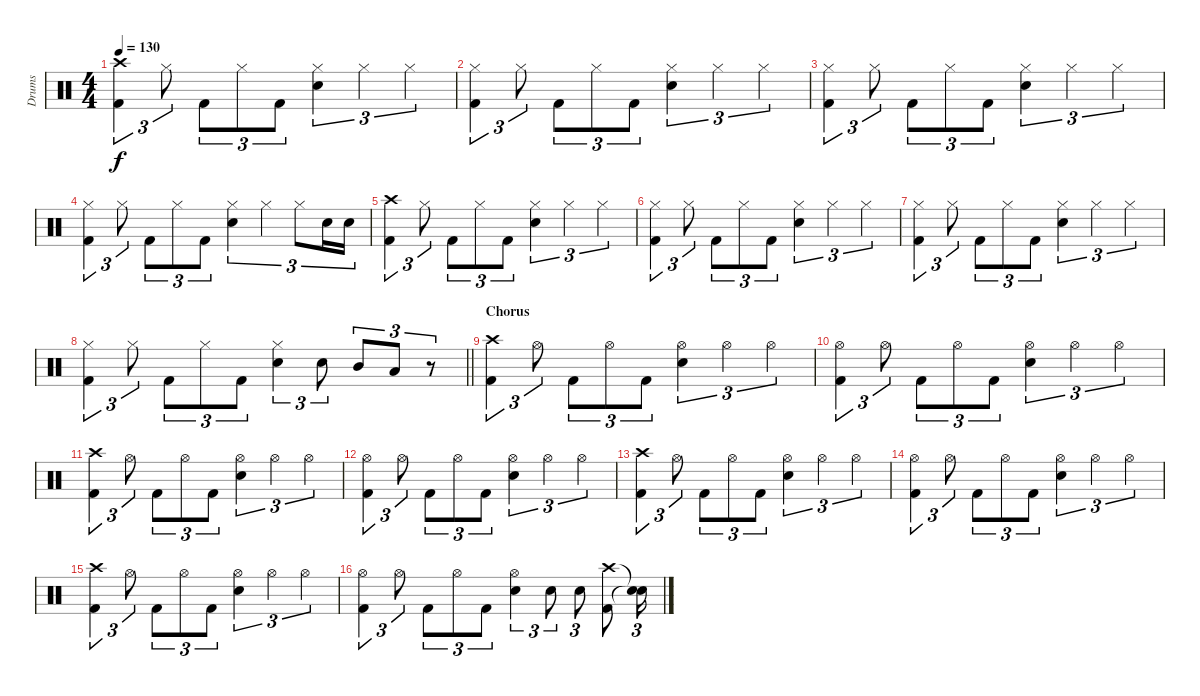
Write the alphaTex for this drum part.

\track ("Drums" "Drums") {instrument percussion}
\staff {score}
\articulation defaults
\ts (4 4)
\tempo 130
\clef neutral
\ks c
("Crash high (hit)" "Kick (hit) 2").4{tu (3 2) dy f} "Hi-Hat (closed)".8{tu (3 2)} "Kick (hit) 2".8{tu (3 2)} "Hi-Hat (closed)".8{tu (3 2)} "Kick (hit) 2".8{tu (3 2)} ("Hi-Hat (closed)" "Electric Snare (hit)").4{tu (3 2)} "Hi-Hat (closed)".4{tu (3 2)} "Hi-Hat (closed)".4{tu (3 2)} |
("Hi-Hat (closed)" "Kick (hit) 2").4{tu (3 2)} "Hi-Hat (closed)".8{tu (3 2)} "Kick (hit) 2".8{tu (3 2)} "Hi-Hat (closed)".8{tu (3 2)} "Kick (hit) 2".8{tu (3 2)} ("Hi-Hat (closed)" "Electric Snare (hit)").4{tu (3 2)} "Hi-Hat (closed)".4{tu (3 2)} "Hi-Hat (closed)".4{tu (3 2)} |
("Hi-Hat (closed)" "Kick (hit) 2").4{tu (3 2)} "Hi-Hat (closed)".8{tu (3 2)} "Kick (hit) 2".8{tu (3 2)} "Hi-Hat (closed)".8{tu (3 2)} "Kick (hit) 2".8{tu (3 2)} ("Hi-Hat (closed)" "Electric Snare (hit)").4{tu (3 2)} "Hi-Hat (closed)".4{tu (3 2)} "Hi-Hat (closed)".4{tu (3 2)} |
("Hi-Hat (closed)" "Kick (hit) 2").4{tu (3 2)} "Hi-Hat (closed)".8{tu (3 2)} "Kick (hit) 2".8{tu (3 2)} "Hi-Hat (closed)".8{tu (3 2)} "Kick (hit) 2".8{tu (3 2)} ("Hi-Hat (closed)" "Electric Snare (hit)").4{tu (3 2)} "Hi-Hat (closed)".4{tu (3 2)} "Hi-Hat (closed)".8{tu (3 2)} "Electric Snare (hit)".16{tu (3 2)} "Electric Snare (hit)".16{tu (3 2)} |
("Crash high (hit)" "Kick (hit) 2").4{tu (3 2)} "Hi-Hat (closed)".8{tu (3 2)} "Kick (hit) 2".8{tu (3 2)} "Hi-Hat (closed)".8{tu (3 2)} "Kick (hit) 2".8{tu (3 2)} ("Hi-Hat (closed)" "Electric Snare (hit)").4{tu (3 2)} "Hi-Hat (closed)".4{tu (3 2)} "Hi-Hat (closed)".4{tu (3 2)} |
("Hi-Hat (closed)" "Kick (hit) 2").4{tu (3 2)} "Hi-Hat (closed)".8{tu (3 2)} "Kick (hit) 2".8{tu (3 2)} "Hi-Hat (closed)".8{tu (3 2)} "Kick (hit) 2".8{tu (3 2)} ("Hi-Hat (closed)" "Electric Snare (hit)").4{tu (3 2)} "Hi-Hat (closed)".4{tu (3 2)} "Hi-Hat (closed)".4{tu (3 2)} |
("Hi-Hat (closed)" "Kick (hit) 2").4{tu (3 2)} "Hi-Hat (closed)".8{tu (3 2)} "Kick (hit) 2".8{tu (3 2)} "Hi-Hat (closed)".8{tu (3 2)} "Kick (hit) 2".8{tu (3 2)} ("Hi-Hat (closed)" "Electric Snare (hit)").4{tu (3 2)} "Hi-Hat (closed)".4{tu (3 2)} "Hi-Hat (closed)".4{tu (3 2)} |
\barLineRight lightlight
("Hi-Hat (closed)" "Kick (hit) 2").4{tu (3 2)} "Hi-Hat (closed)".8{tu (3 2)} "Kick (hit) 2".8{tu (3 2)} "Hi-Hat (closed)".8{tu (3 2)} "Kick (hit) 2".8{tu (3 2)} ("Hi-Hat (closed)" "Electric Snare (hit)").4{tu (3 2)} "Electric Snare (hit)".8{tu (3 2)} "Mid Tom (hit)".8{tu (3 2)} "Low Tom (hit)".8{tu (3 2)} r.8{tu (3 2)} |
\section ("" "Chorus")
("Crash high (hit)" "Kick (hit) 2").4{tu (3 2)} "Hi-Hat (open)".8{tu (3 2)} "Kick (hit) 2".8{tu (3 2)} "Hi-Hat (open)".8{tu (3 2)} "Kick (hit) 2".8{tu (3 2)} ("Hi-Hat (open)" "Electric Snare (hit)").4{tu (3 2)} "Hi-Hat (open)".4{tu (3 2)} "Hi-Hat (open)".4{tu (3 2)} |
("Hi-Hat (open)" "Kick (hit) 2").4{tu (3 2)} "Hi-Hat (open)".8{tu (3 2)} "Kick (hit) 2".8{tu (3 2)} "Hi-Hat (open)".8{tu (3 2)} "Kick (hit) 2".8{tu (3 2)} ("Hi-Hat (open)" "Electric Snare (hit)").4{tu (3 2)} "Hi-Hat (open)".4{tu (3 2)} "Hi-Hat (open)".4{tu (3 2)} |
("Crash high (hit)" "Kick (hit) 2").4{tu (3 2)} "Hi-Hat (open)".8{tu (3 2)} "Kick (hit) 2".8{tu (3 2)} "Hi-Hat (open)".8{tu (3 2)} "Kick (hit) 2".8{tu (3 2)} ("Hi-Hat (open)" "Electric Snare (hit)").4{tu (3 2)} "Hi-Hat (open)".4{tu (3 2)} "Hi-Hat (open)".4{tu (3 2)} |
("Hi-Hat (open)" "Kick (hit) 2").4{tu (3 2)} "Hi-Hat (open)".8{tu (3 2)} "Kick (hit) 2".8{tu (3 2)} "Hi-Hat (open)".8{tu (3 2)} "Kick (hit) 2".8{tu (3 2)} ("Hi-Hat (open)" "Electric Snare (hit)").4{tu (3 2)} "Hi-Hat (open)".4{tu (3 2)} "Hi-Hat (open)".4{tu (3 2)} |
("Crash high (hit)" "Kick (hit) 2").4{tu (3 2)} "Hi-Hat (open)".8{tu (3 2)} "Kick (hit) 2".8{tu (3 2)} "Hi-Hat (open)".8{tu (3 2)} "Kick (hit) 2".8{tu (3 2)} ("Hi-Hat (open)" "Electric Snare (hit)").4{tu (3 2)} "Hi-Hat (open)".4{tu (3 2)} "Hi-Hat (open)".4{tu (3 2)} |
("Hi-Hat (open)" "Kick (hit) 2").4{tu (3 2)} "Hi-Hat (open)".8{tu (3 2)} "Kick (hit) 2".8{tu (3 2)} "Hi-Hat (open)".8{tu (3 2)} "Kick (hit) 2".8{tu (3 2)} ("Hi-Hat (open)" "Electric Snare (hit)").4{tu (3 2)} "Hi-Hat (open)".4{tu (3 2)} "Hi-Hat (open)".4{tu (3 2)} |
("Crash high (hit)" "Kick (hit) 2").4{tu (3 2)} "Hi-Hat (open)".8{tu (3 2)} "Kick (hit) 2".8{tu (3 2)} "Hi-Hat (open)".8{tu (3 2)} "Kick (hit) 2".8{tu (3 2)} ("Hi-Hat (open)" "Electric Snare (hit)").4{tu (3 2)} "Hi-Hat (open)".4{tu (3 2)} "Hi-Hat (open)".4{tu (3 2)} |
("Hi-Hat (open)" "Kick (hit) 2").4{tu (3 2)} "Hi-Hat (open)".8{tu (3 2)} "Kick (hit) 2".8{tu (3 2)} "Hi-Hat (open)".8{tu (3 2)} "Kick (hit) 2".8{tu (3 2)} ("Hi-Hat (open)" "Electric Snare (hit)").4{tu (3 2)} "Electric Snare (hit)".8{tu (3 2)} "Electric Snare (hit)".8{tu (3 2)} ("Crash high (hit)" "Kick (hit) 2").8 ("Snare (hit)"{t} "Snare (hit)"{t}).16{tu (3 2)}
